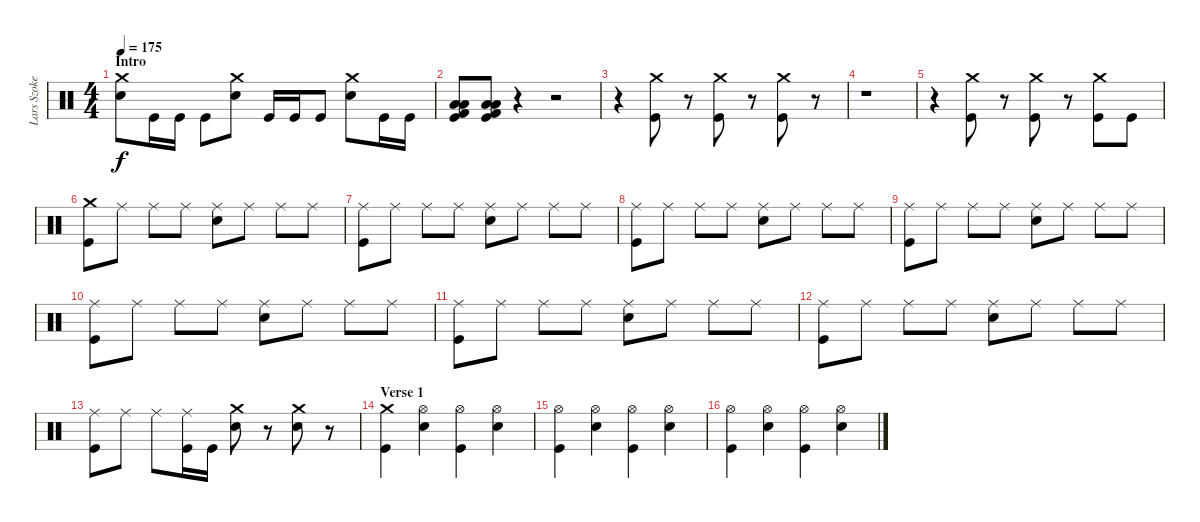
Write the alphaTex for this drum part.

\track ("Lars Szoke" "Lars Szoke") {instrument percussion}
\staff {score}
\articulation defaults
\ts (4 4)
\section ("" "Intro")
\tempo 175
\clef neutral
\ks c
("Crash medium (hit)" "Electric Snare (hit)").8{dy f} "Kick (hit)".16 "Kick (hit)".16 "Kick (hit)".8 ("Crash medium (hit)" "Electric Snare (hit)").8 "Kick (hit)".16 "Kick (hit)".16 "Kick (hit)".8 ("Crash medium (hit)" "Electric Snare (hit)").8 "Kick (hit)".16 "Kick (hit)".16 |
("Low Floor Tom (hit)" "Low Floor Tom (hit)" "Kick (hit) 2" "Kick (hit)").8 ("Low Floor Tom (hit)" "Low Floor Tom (hit)" "Kick (hit) 2" "Kick (hit)").8 r.4 r.2 |
r.4 ("Crash medium (hit)" "Kick (hit)").8 r.8 ("Crash medium (hit)" "Kick (hit)").8 r.8 ("Crash medium (hit)" "Kick (hit)").8 r.8 |
r.1 |
r.4 ("Crash medium (hit)" "Kick (hit)").8 r.8 ("Crash medium (hit)" "Kick (hit)").8 r.8 ("Crash medium (hit)" "Kick (hit)").8 "Kick (hit)".8 |
("Crash medium (hit)" "Kick (hit)").8 "Ride (middle)".8 "Ride (middle)".8 "Ride (middle)".8 ("Ride (middle)" "Electric Snare (hit)").8 "Ride (middle)".8 "Ride (middle)".8 "Ride (middle)".8 |
("Ride (middle)" "Kick (hit)").8 "Ride (middle)".8 "Ride (middle)".8 "Ride (middle)".8 ("Ride (middle)" "Electric Snare (hit)").8 "Ride (middle)".8 "Ride (middle)".8 "Ride (middle)".8 |
("Ride (middle)" "Kick (hit)").8 "Ride (middle)".8 "Ride (middle)".8 "Ride (middle)".8 ("Ride (middle)" "Electric Snare (hit)").8 "Ride (middle)".8 "Ride (middle)".8 "Ride (middle)".8 |
("Ride (middle)" "Kick (hit)").8 "Ride (middle)".8 "Ride (middle)".8 "Ride (middle)".8 ("Ride (middle)" "Electric Snare (hit)").8 "Ride (middle)".8 "Ride (middle)".8 "Ride (middle)".8 |
("Ride (middle)" "Kick (hit)").8 "Ride (middle)".8 "Ride (middle)".8 "Ride (middle)".8 ("Ride (middle)" "Electric Snare (hit)").8 "Ride (middle)".8 "Ride (middle)".8 "Ride (middle)".8 |
("Ride (middle)" "Kick (hit)").8 "Ride (middle)".8 "Ride (middle)".8 "Ride (middle)".8 ("Ride (middle)" "Electric Snare (hit)").8 "Ride (middle)".8 "Ride (middle)".8 "Ride (middle)".8 |
("Ride (middle)" "Kick (hit)").8 "Ride (middle)".8 "Ride (middle)".8 "Ride (middle)".8 ("Ride (middle)" "Electric Snare (hit)").8 "Ride (middle)".8 "Ride (middle)".8 "Ride (middle)".8 |
("Ride (middle)" "Kick (hit)").8 "Ride (middle)".8 "Ride (middle)".8 ("Ride (middle)" "Kick (hit)").16 "Kick (hit)".16 ("Crash medium (hit)" "Electric Snare (hit)").8 r.8 ("Crash medium (hit)" "Electric Snare (hit)").8 r.8 |
\section ("" "Verse 1")
("Crash medium (hit)" "Kick (hit)").4 ("Hi-Hat (open)" "Electric Snare (hit)").4 ("Hi-Hat (open)" "Kick (hit)").4 ("Hi-Hat (open)" "Electric Snare (hit)").4 |
("Hi-Hat (open)" "Kick (hit)").4 ("Hi-Hat (open)" "Electric Snare (hit)").4 ("Hi-Hat (open)" "Kick (hit)").4 ("Hi-Hat (open)" "Electric Snare (hit)").4 |
("Hi-Hat (open)" "Kick (hit)").4 ("Hi-Hat (open)" "Electric Snare (hit)").4 ("Hi-Hat (open)" "Kick (hit)").4 ("Hi-Hat (open)" "Electric Snare (hit)").4
